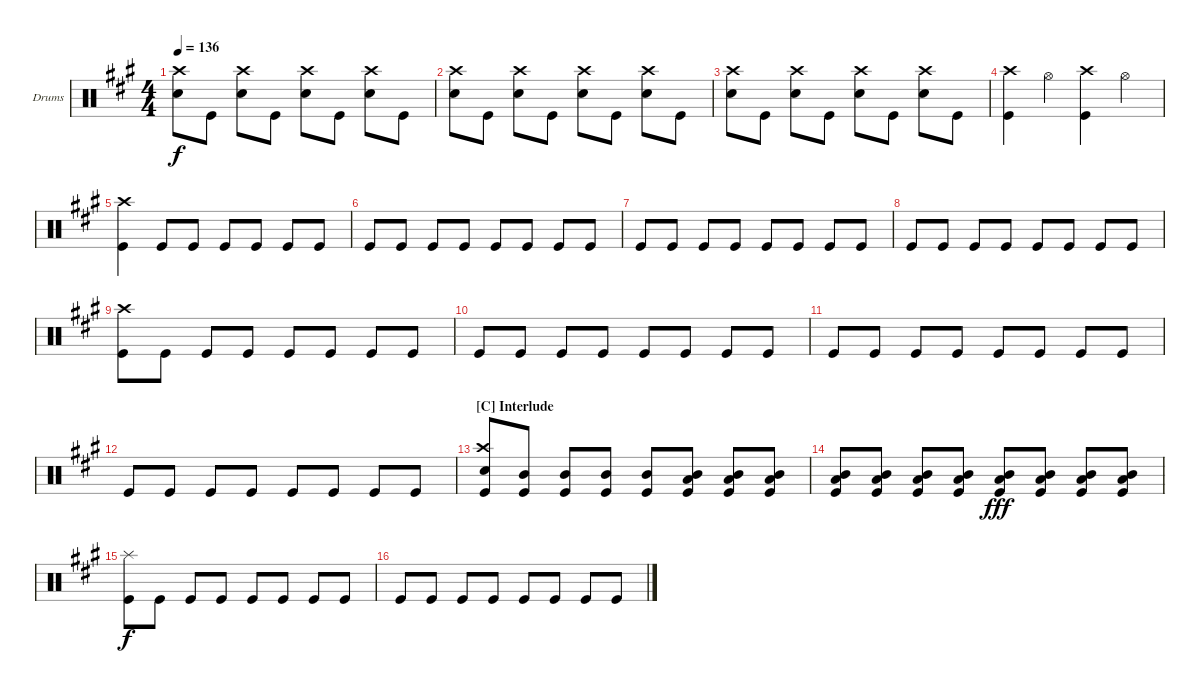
\defaultSystemsLayout 4
\bracketExtendMode groupsimilarinstruments
\firstSystemTrackNameOrientation horizontal
\otherSystemsTrackNameOrientation horizontal
\track ("Drumkit" "Drums") {instrument percussion}
\staff {score}
\articulation defaults
\ts (4 4)
\tempo 136
\clef neutral
\scale
1.05801
\ks a
("Snare (hit) 2" "Crash high (hit)").8{dy f} "Kick (hit)".8 ("Snare (hit) 2" "Crash high (hit)").8 "Kick (hit)".8 ("Snare (hit) 2" "Crash high (hit)").8 "Kick (hit)".8 ("Snare (hit) 2" "Crash high (hit)").8 "Kick (hit)".8 |
\scale
0.941992 ("Snare (hit) 2" "Crash high (hit)").8 "Kick (hit)".8 ("Snare (hit) 2" "Crash high (hit)").8 "Kick (hit)".8 ("Snare (hit) 2" "Crash high (hit)").8 "Kick (hit)".8 ("Snare (hit) 2" "Crash high (hit)").8 "Kick (hit)".8 |
\scale
1.05801 ("Snare (hit) 2" "Crash high (hit)").8 "Kick (hit)".8 ("Snare (hit) 2" "Crash high (hit)").8 "Kick (hit)".8 ("Snare (hit) 2" "Crash high (hit)").8 "Kick (hit)".8 ("Snare (hit) 2" "Crash high (hit)").8 "Kick (hit)".8 |
\scale
0.941992 ("Kick (hit)" "Crash high (hit)").4 "Hi-Hat (open)".4 ("Kick (hit)" "Crash high (hit)").4 "Hi-Hat (open)".4 |
\scale
1.05801 ("Kick (hit)" "Crash high (hit)").4 "Kick (hit)".8 "Kick (hit)".8 "Kick (hit)".8 "Kick (hit)".8 "Kick (hit)".8 "Kick (hit)".8 |
\scale
0.941992 "Kick (hit)".8 "Kick (hit)".8 "Kick (hit)".8 "Kick (hit)".8 "Kick (hit)".8 "Kick (hit)".8 "Kick (hit)".8 "Kick (hit)".8 |
\scale
1.05801 "Kick (hit)".8 "Kick (hit)".8 "Kick (hit)".8 "Kick (hit)".8 "Kick (hit)".8 "Kick (hit)".8 "Kick (hit)".8 "Kick (hit)".8 |
\scale
0.941992 "Kick (hit)".8 "Kick (hit)".8 "Kick (hit)".8 "Kick (hit)".8 "Kick (hit)".8 "Kick (hit)".8 "Kick (hit)".8 "Kick (hit)".8 |
\scale
1.05801 ("Kick (hit)" "Crash high (hit)").8 "Kick (hit)".8 "Kick (hit)".8 "Kick (hit)".8 "Kick (hit)".8 "Kick (hit)".8 "Kick (hit)".8 "Kick (hit)".8 |
\scale
0.941992 "Kick (hit)".8 "Kick (hit)".8 "Kick (hit)".8 "Kick (hit)".8 "Kick (hit)".8 "Kick (hit)".8 "Kick (hit)".8 "Kick (hit)".8 |
\scale
1.05801 "Kick (hit)".8 "Kick (hit)".8 "Kick (hit)".8 "Kick (hit)".8 "Kick (hit)".8 "Kick (hit)".8 "Kick (hit)".8 "Kick (hit)".8 |
\scale
0.941992 "Kick (hit)".8 "Kick (hit)".8 "Kick (hit)".8 "Kick (hit)".8 "Kick (hit)".8 "Kick (hit)".8 "Kick (hit)".8 "Kick (hit)".8 |
\section ("C" "Interlude")
\scale
1.05801 ("Kick (hit)" "Snare (hit) 2" "Crash high (hit)").8 ("Kick (hit)" "Mid Tom (hit)").8 ("Kick (hit)" "Mid Tom (hit)").8 ("Kick (hit)" "Mid Tom (hit)").8 ("Kick (hit)" "Mid Tom (hit)").8 ("Kick (hit)" "Low Tom (hit)" "Mid Tom (hit)").8 ("Kick (hit)" "Low Tom (hit)" "Mid Tom (hit)").8 ("Kick (hit)" "Low Tom (hit)" "Mid Tom (hit)").8 |
\scale
0.941992 ("Kick (hit)" "Low Tom (hit)" "Mid Tom (hit)").8 ("Kick (hit)" "Low Tom (hit)" "Mid Tom (hit)").8 ("Kick (hit)" "Low Tom (hit)" "Mid Tom (hit)").8 ("Kick (hit)" "Low Tom (hit)" "Mid Tom (hit)").8 ("Kick (hit)" "Low Tom (hit)" "Mid Tom (hit)").8{dy fff} ("Kick (hit)" "Low Tom (hit)" "Mid Tom (hit)").8 ("Kick (hit)" "Low Tom (hit)" "Mid Tom (hit)").8 ("Kick (hit)" "Low Tom (hit)" "Mid Tom (hit)").8 |
\scale
1.05801 ("Kick (hit)" "Splash (hit)").8{dy f} "Kick (hit)".8 "Kick (hit)".8 "Kick (hit)".8 "Kick (hit)".8 "Kick (hit)".8 "Kick (hit)".8 "Kick (hit)".8 |
\scale
0.941992 "Kick (hit)".8 "Kick (hit)".8 "Kick (hit)".8 "Kick (hit)".8 "Kick (hit)".8 "Kick (hit)".8 "Kick (hit)".8 "Kick (hit)".8
